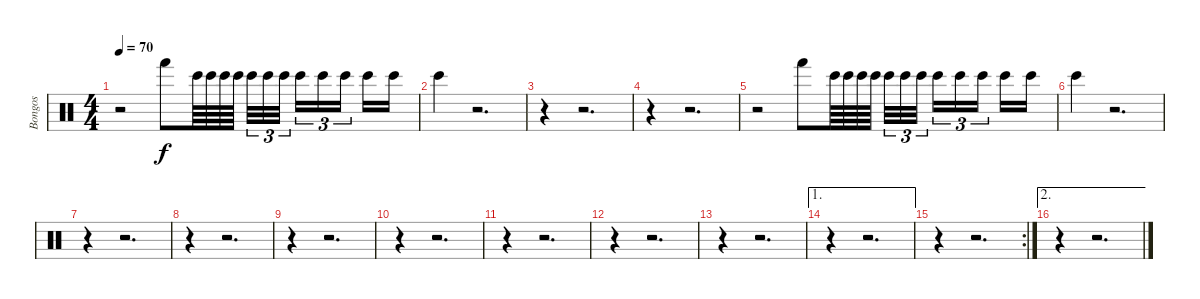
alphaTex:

\track ("Bongos" "Bongos") {instrument percussion}
\staff {score}
\articulation defaults
\ts (4 4)
\tempo 70
\clef neutral
\ks c
r.2{dy f} "Hand (hit)".8 "Bongo High (hit)".64 "Bongo High (hit)".64 "Bongo High (hit)".64 "Bongo High (hit)".64 "Bongo High (hit)".32{tu (3 2)} "Bongo High (hit)".32{tu (3 2)} "Bongo High (hit)".32{tu (3 2)} "Bongo High (hit)".16{tu (3 2)} "Bongo High (hit)".16{tu (3 2)} "Bongo High (hit)".16{tu (3 2)} "Bongo High (hit)".16 "Bongo High (hit)".16 |
"Bongo High (hit)".4 r.2{d} |
r.4 r.2{d} |
r.4 r.2{d} |
r.2 "Hand (hit)".8 "Bongo High (hit)".64 "Bongo High (hit)".64 "Bongo High (hit)".64 "Bongo High (hit)".64 "Bongo High (hit)".32{tu (3 2)} "Bongo High (hit)".32{tu (3 2)} "Bongo High (hit)".32{tu (3 2)} "Bongo High (hit)".16{tu (3 2)} "Bongo High (hit)".16{tu (3 2)} "Bongo High (hit)".16{tu (3 2)} "Bongo High (hit)".16 "Bongo High (hit)".16 |
"Bongo High (hit)".4 r.2{d} |
r.4 r.2{d} |
r.4 r.2{d} |
r.4 r.2{d} |
r.4 r.2{d} |
r.4 r.2{d} |
r.4 r.2{d} |
r.4 r.2{d} |
\ae 1
r.4 r.2{d} |
\rc 1
r.4 r.2{d} |
\ae 2
r.4 r.2{d}
